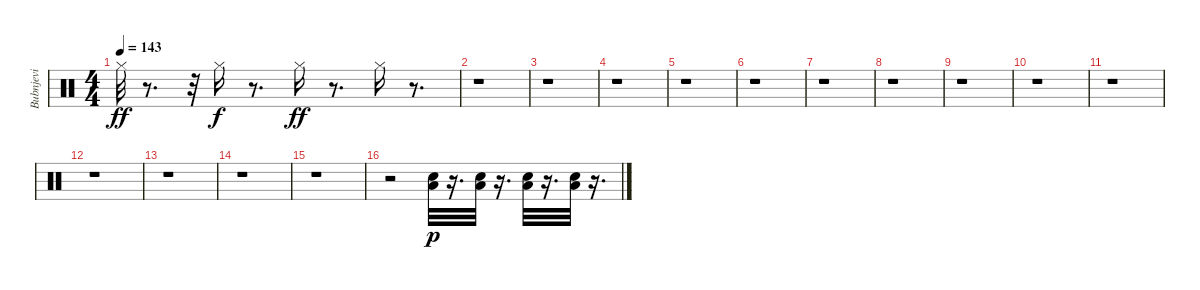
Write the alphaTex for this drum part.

\track ("Bubnjevi" "Bubnjevi") {instrument percussion}
\staff {score}
\articulation defaults
\ts (4 4)
\tempo 143
\clef neutral
\ks c "Hi-Hat (closed)".32{dy ff}
r.8{d} r.32 "Hi-Hat (closed)".16{dy f} r.8{d} "Hi-Hat (closed)".16{dy ff} r.8{d} "Hi-Hat (closed)".16 r.8{d} |
r.1 |
r.1 |
r.1 |
r.1 |
r.1 |
r.1 |
r.1 |
r.1 |
r.1 |
r.1 |
r.1 |
r.1 |
r.1 |
r.1 |
r.2 ("Snare (hit) 2" "Low Floor Tom (hit)").32{dy p} r.16{d} ("Snare (hit) 2" "Low Floor Tom (hit)").32 r.16{d} ("Snare (hit) 2" "Low Floor Tom (hit)").32 r.16{d} ("Snare (hit) 2" "Low Floor Tom (hit)").32 r.16{d}
